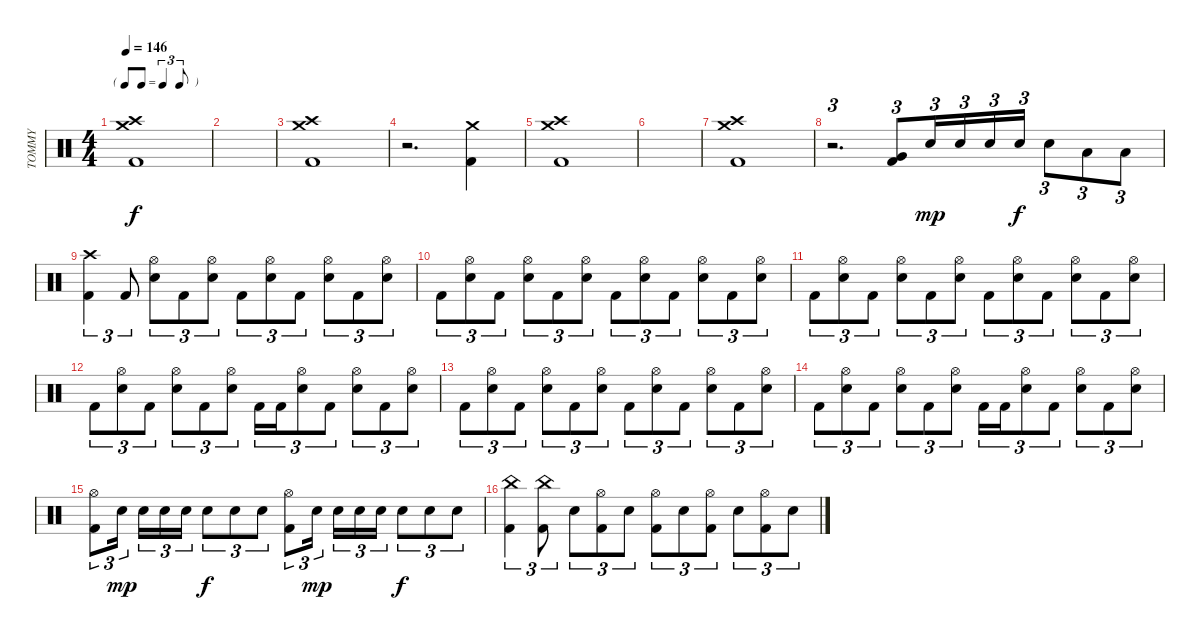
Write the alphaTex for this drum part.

\track ("TOMMY" "TOMMY") {instrument percussion}
\staff {score}
\articulation defaults
\ts (4 4)
\tf triplet8th
\tempo 146
\clef neutral
\ks c
("Kick (hit) 2" "Crash high (hit)" "Crash medium (hit)").1{dy f} |
|
("Kick (hit) 2" "Crash high (hit)" "Crash medium (hit)").1 |
r.2{d} ("Kick (hit) 2" "Crash medium (hit)").4 |
("Kick (hit) 2" "Crash high (hit)" "Crash medium (hit)").1 |
|
("Kick (hit) 2" "Crash high (hit)" "Crash medium (hit)").1 |
r.2{d tu (3 2)} ("Kick (hit) 2" "Very Low Tom (hit)").8{tu (3 2)} "Snare (hit) 2".16{tu (3 2) dy mp} "Snare (hit) 2".16{tu (3 2)} "Snare (hit) 2".16{tu (3 2)} "Snare (hit) 2".16{tu (3 2) dy f} "Snare (hit) 2".8{tu (3 2)} "Low Floor Tom (hit)".8{tu (3 2)} "Low Floor Tom (hit)".8{tu (3 2)} |
("Kick (hit) 2" "Crash high (hit)").4{tu (3 2)} "Kick (hit) 2".8{tu (3 2)} ("Snare (hit) 2" "Hi-Hat (open)").8{tu (3 2)} "Kick (hit) 2".8{tu (3 2)} ("Snare (hit) 2" "Hi-Hat (open)").8{tu (3 2)} "Kick (hit) 2".8{tu (3 2)} ("Snare (hit) 2" "Hi-Hat (open)").8{tu (3 2)} "Kick (hit) 2".8{tu (3 2)} ("Snare (hit) 2" "Hi-Hat (open)").8{tu (3 2)} "Kick (hit) 2".8{tu (3 2)} ("Snare (hit) 2" "Hi-Hat (open)").8{tu (3 2)} |
"Kick (hit) 2".8{tu (3 2)} ("Snare (hit) 2" "Hi-Hat (open)").8{tu (3 2)} "Kick (hit) 2".8{tu (3 2)} ("Snare (hit) 2" "Hi-Hat (open)").8{tu (3 2)} "Kick (hit) 2".8{tu (3 2)} ("Snare (hit) 2" "Hi-Hat (open)").8{tu (3 2)} "Kick (hit) 2".8{tu (3 2)} ("Snare (hit) 2" "Hi-Hat (open)").8{tu (3 2)} "Kick (hit) 2".8{tu (3 2)} ("Snare (hit) 2" "Hi-Hat (open)").8{tu (3 2)} "Kick (hit) 2".8{tu (3 2)} ("Snare (hit) 2" "Hi-Hat (open)").8{tu (3 2)} |
"Kick (hit) 2".8{tu (3 2)} ("Snare (hit) 2" "Hi-Hat (open)").8{tu (3 2)} "Kick (hit) 2".8{tu (3 2)} ("Snare (hit) 2" "Hi-Hat (open)").8{tu (3 2)} "Kick (hit) 2".8{tu (3 2)} ("Snare (hit) 2" "Hi-Hat (open)").8{tu (3 2)} "Kick (hit) 2".8{tu (3 2)} ("Snare (hit) 2" "Hi-Hat (open)").8{tu (3 2)} "Kick (hit) 2".8{tu (3 2)} ("Snare (hit) 2" "Hi-Hat (open)").8{tu (3 2)} "Kick (hit) 2".8{tu (3 2)} ("Snare (hit) 2" "Hi-Hat (open)").8{tu (3 2)} |
"Kick (hit) 2".8{tu (3 2)} ("Snare (hit) 2" "Hi-Hat (open)").8{tu (3 2)} "Kick (hit) 2".8{tu (3 2)} ("Snare (hit) 2" "Hi-Hat (open)").8{tu (3 2)} "Kick (hit) 2".8{tu (3 2)} ("Snare (hit) 2" "Hi-Hat (open)").8{tu (3 2)} "Kick (hit) 2".16{tu (3 2)} "Kick (hit) 2".16{tu (3 2)} ("Snare (hit) 2" "Hi-Hat (open)").8{tu (3 2)} "Kick (hit) 2".8{tu (3 2)} ("Snare (hit) 2" "Hi-Hat (open)").8{tu (3 2)} "Kick (hit) 2".8{tu (3 2)} ("Snare (hit) 2" "Hi-Hat (open)").8{tu (3 2)} |
"Kick (hit) 2".8{tu (3 2)} ("Snare (hit) 2" "Hi-Hat (open)").8{tu (3 2)} "Kick (hit) 2".8{tu (3 2)} ("Snare (hit) 2" "Hi-Hat (open)").8{tu (3 2)} "Kick (hit) 2".8{tu (3 2)} ("Snare (hit) 2" "Hi-Hat (open)").8{tu (3 2)} "Kick (hit) 2".8{tu (3 2)} ("Snare (hit) 2" "Hi-Hat (open)").8{tu (3 2)} "Kick (hit) 2".8{tu (3 2)} ("Snare (hit) 2" "Hi-Hat (open)").8{tu (3 2)} "Kick (hit) 2".8{tu (3 2)} ("Snare (hit) 2" "Hi-Hat (open)").8{tu (3 2)} |
"Kick (hit) 2".8{tu (3 2)} ("Snare (hit) 2" "Hi-Hat (open)").8{tu (3 2)} "Kick (hit) 2".8{tu (3 2)} ("Snare (hit) 2" "Hi-Hat (open)").8{tu (3 2)} "Kick (hit) 2".8{tu (3 2)} ("Snare (hit) 2" "Hi-Hat (open)").8{tu (3 2)} "Kick (hit) 2".16{tu (3 2)} "Kick (hit) 2".16{tu (3 2)} ("Snare (hit) 2" "Hi-Hat (open)").8{tu (3 2)} "Kick (hit) 2".8{tu (3 2)} ("Snare (hit) 2" "Hi-Hat (open)").8{tu (3 2)} "Kick (hit) 2".8{tu (3 2)} ("Snare (hit) 2" "Hi-Hat (open)").8{tu (3 2)} |
("Kick (hit) 2" "Hi-Hat (open)").8{tu (3 2)} "Snare (hit) 2".16{tu (3 2) dy mp} "Snare (hit) 2".16{tu (3 2)} "Snare (hit) 2".16{tu (3 2)} "Snare (hit) 2".16{tu (3 2)} "Snare (hit) 2".8{tu (3 2) dy f} "Snare (hit) 2".8{tu (3 2)} "Snare (hit) 2".8{tu (3 2)} ("Kick (hit) 2" "Hi-Hat (open)").8{tu (3 2)} "Snare (hit) 2".16{tu (3 2) dy mp} "Snare (hit) 2".16{tu (3 2)} "Snare (hit) 2".16{tu (3 2)} "Snare (hit) 2".16{tu (3 2)} "Snare (hit) 2".8{tu (3 2) dy f} "Snare (hit) 2".8{tu (3 2)} "Snare (hit) 2".8{tu (3 2)} |
("Kick (hit) 2" "China (hit)").4{tu (3 2)} ("Kick (hit) 2" "China (hit)").8{tu (3 2)} "Snare (hit) 2".8{tu (3 2)} ("Kick (hit) 2" "Hi-Hat (open)").8{tu (3 2)} "Snare (hit) 2".8{tu (3 2)} ("Kick (hit) 2" "Hi-Hat (open)").8{tu (3 2)} "Snare (hit) 2".8{tu (3 2)} ("Kick (hit) 2" "Hi-Hat (open)").8{tu (3 2)} "Snare (hit) 2".8{tu (3 2)} ("Kick (hit) 2" "Hi-Hat (open)").8{tu (3 2)} "Snare (hit) 2".8{tu (3 2)}
